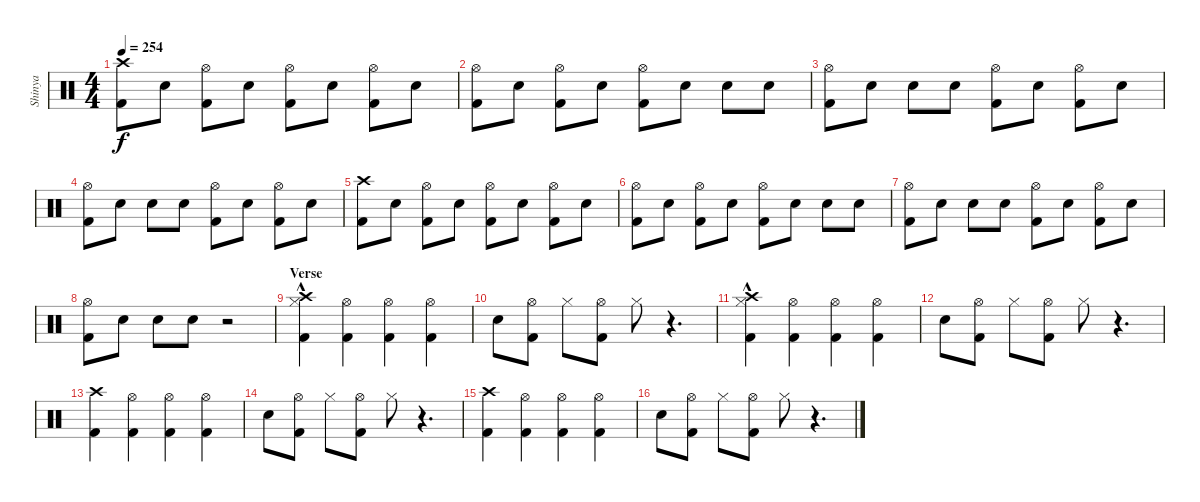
\track ("Shinya" "Shinya") {instrument percussion}
\staff {score}
\articulation defaults
\ts (4 4)
\tempo 254
\clef neutral
\ks c
("Crash high (hit)" "Kick (hit) 2").8{dy f} "Electric Snare (hit)".8 ("Hi-Hat (open)" "Kick (hit) 2").8 "Electric Snare (hit)".8 ("Hi-Hat (open)" "Kick (hit) 2").8 "Electric Snare (hit)".8 ("Hi-Hat (open)" "Kick (hit) 2").8 "Electric Snare (hit)".8 |
("Hi-Hat (open)" "Kick (hit) 2").8 "Electric Snare (hit)".8 ("Hi-Hat (open)" "Kick (hit) 2").8 "Electric Snare (hit)".8 ("Hi-Hat (open)" "Kick (hit) 2").8 "Electric Snare (hit)".8 "Electric Snare (hit)".8 "Electric Snare (hit)".8 |
("Hi-Hat (open)" "Kick (hit) 2").8 "Electric Snare (hit)".8 "Electric Snare (hit)".8 "Electric Snare (hit)".8 ("Hi-Hat (open)" "Kick (hit) 2").8 "Electric Snare (hit)".8 ("Hi-Hat (open)" "Kick (hit) 2").8 "Electric Snare (hit)".8 |
("Hi-Hat (open)" "Kick (hit) 2").8 "Electric Snare (hit)".8 "Electric Snare (hit)".8 "Electric Snare (hit)".8 ("Hi-Hat (open)" "Kick (hit) 2").8 "Electric Snare (hit)".8 ("Hi-Hat (open)" "Kick (hit) 2").8 "Electric Snare (hit)".8 |
("Crash high (hit)" "Kick (hit) 2").8 "Electric Snare (hit)".8 ("Hi-Hat (open)" "Kick (hit) 2").8 "Electric Snare (hit)".8 ("Hi-Hat (open)" "Kick (hit) 2").8 "Electric Snare (hit)".8 ("Hi-Hat (open)" "Kick (hit) 2").8 "Electric Snare (hit)".8 |
("Hi-Hat (open)" "Kick (hit) 2").8 "Electric Snare (hit)".8 ("Hi-Hat (open)" "Kick (hit) 2").8 "Electric Snare (hit)".8 ("Hi-Hat (open)" "Kick (hit) 2").8 "Electric Snare (hit)".8 "Electric Snare (hit)".8 "Electric Snare (hit)".8 |
("Hi-Hat (open)" "Kick (hit) 2").8 "Electric Snare (hit)".8 "Electric Snare (hit)".8 "Electric Snare (hit)".8 ("Hi-Hat (open)" "Kick (hit) 2").8 "Electric Snare (hit)".8 ("Hi-Hat (open)" "Kick (hit) 2").8 "Electric Snare (hit)".8 |
("Kick (hit) 2" "Hi-Hat (open)").8 "Electric Snare (hit)".8 "Electric Snare (hit)".8 "Electric Snare (hit)".8 r.2 |
\section ("" "Verse")
("Crash high (hit)" "Kick (hit) 2" "Hi-Hat (closed)"{hac}).4 ("Kick (hit) 2" "Hi-Hat (open)").4 ("Kick (hit) 2" "Hi-Hat (open)").4 ("Kick (hit) 2" "Hi-Hat (open)").4 |
"Electric Snare (hit)".8 ("Kick (hit) 2" "Hi-Hat (open)").8 "Hi-Hat (closed)".8 ("Hi-Hat (open)" "Kick (hit) 2").8 "Hi-Hat (closed)".8 r.4{d} |
("Crash high (hit)" "Kick (hit) 2" "Hi-Hat (closed)"{hac}).4 ("Kick (hit) 2" "Hi-Hat (open)").4 ("Kick (hit) 2" "Hi-Hat (open)").4 ("Kick (hit) 2" "Hi-Hat (open)").4 |
"Electric Snare (hit)".8 ("Kick (hit) 2" "Hi-Hat (open)").8 "Hi-Hat (closed)".8 ("Hi-Hat (open)" "Kick (hit) 2").8 "Hi-Hat (closed)".8 r.4{d} |
("Crash high (hit)" "Kick (hit) 2").4 ("Kick (hit) 2" "Hi-Hat (open)").4 ("Kick (hit) 2" "Hi-Hat (open)").4 ("Kick (hit) 2" "Hi-Hat (open)").4 |
"Electric Snare (hit)".8 ("Kick (hit) 2" "Hi-Hat (open)").8 "Hi-Hat (closed)".8 ("Hi-Hat (open)" "Kick (hit) 2").8 "Hi-Hat (closed)".8 r.4{d} |
("Crash high (hit)" "Kick (hit) 2").4 ("Kick (hit) 2" "Hi-Hat (open)").4 ("Kick (hit) 2" "Hi-Hat (open)").4 ("Kick (hit) 2" "Hi-Hat (open)").4 |
"Electric Snare (hit)".8 ("Kick (hit) 2" "Hi-Hat (open)").8 "Hi-Hat (closed)".8 ("Hi-Hat (open)" "Kick (hit) 2").8 "Hi-Hat (closed)".8 r.4{d}
